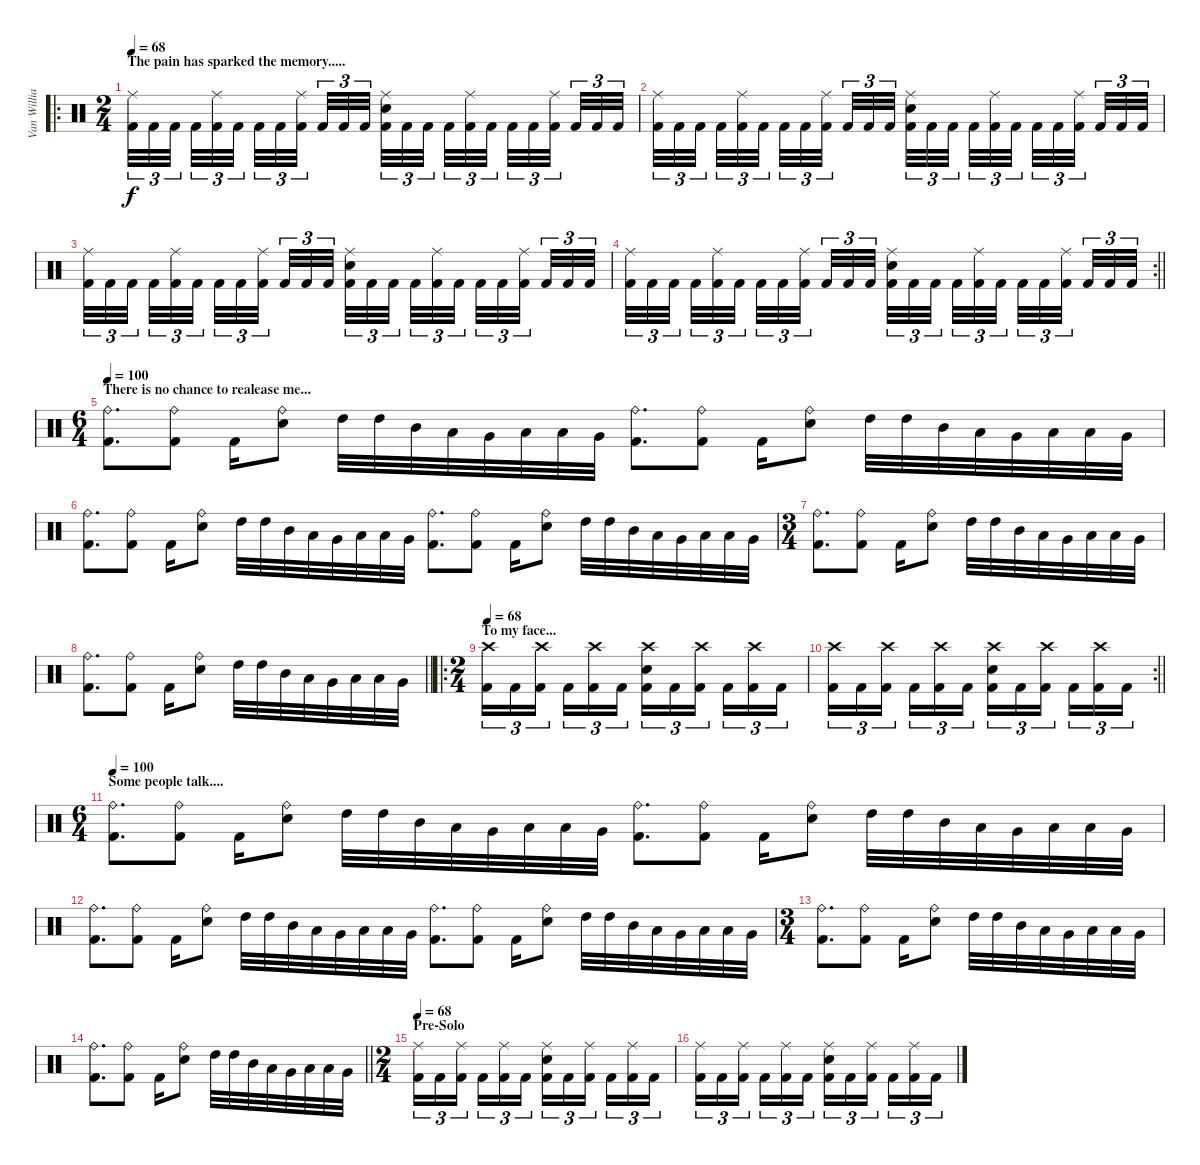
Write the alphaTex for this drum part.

\track ("Van Williams" "Van Willia") {instrument percussion}
\staff
\articulation defaults
\ro
\ts (2 4)
\section ("" "The pain has sparked the memory.....")
\tempo 68
\clef neutral
\ks c
("Ride (middle)" "Kick (hit) 2").32{tu (3 2) dy f} "Kick (hit) 2".32{tu (3 2)} "Kick (hit) 2".32{tu (3 2) beam splitsecondary} "Kick (hit) 2".32{tu (3 2)} ("Ride (middle)" "Kick (hit) 2").32{tu (3 2)} "Kick (hit) 2".32{tu (3 2) beam splitsecondary} "Kick (hit) 2".32{tu (3 2)} "Kick (hit) 2".32{tu (3 2)} ("Ride (middle)" "Kick (hit) 2").32{tu (3 2) beam splitsecondary} "Kick (hit) 2".32{tu (3 2)} "Kick (hit) 2".32{tu (3 2)} "Kick (hit) 2".32{tu (3 2)} ("Ride (middle)" "Electric Snare (hit)" "Kick (hit) 2").32{tu (3 2)} "Kick (hit) 2".32{tu (3 2)} "Kick (hit) 2".32{tu (3 2) beam splitsecondary} "Kick (hit) 2".32{tu (3 2)} ("Ride (middle)" "Kick (hit) 2").32{tu (3 2)} "Kick (hit) 2".32{tu (3 2) beam splitsecondary} "Kick (hit) 2".32{tu (3 2)} "Kick (hit) 2".32{tu (3 2)} ("Ride (middle)" "Kick (hit) 2").32{tu (3 2) beam splitsecondary} "Kick (hit) 2".32{tu (3 2)} "Kick (hit) 2".32{tu (3 2)} "Kick (hit) 2".32{tu (3 2)} |
("Ride (middle)" "Kick (hit) 2").32{tu (3 2)} "Kick (hit) 2".32{tu (3 2)} "Kick (hit) 2".32{tu (3 2) beam splitsecondary} "Kick (hit) 2".32{tu (3 2)} ("Ride (middle)" "Kick (hit) 2").32{tu (3 2)} "Kick (hit) 2".32{tu (3 2) beam splitsecondary} "Kick (hit) 2".32{tu (3 2)} "Kick (hit) 2".32{tu (3 2)} ("Ride (middle)" "Kick (hit) 2").32{tu (3 2) beam splitsecondary} "Kick (hit) 2".32{tu (3 2)} "Kick (hit) 2".32{tu (3 2)} "Kick (hit) 2".32{tu (3 2)} ("Ride (middle)" "Electric Snare (hit)" "Kick (hit) 2").32{tu (3 2)} "Kick (hit) 2".32{tu (3 2)} "Kick (hit) 2".32{tu (3 2) beam splitsecondary} "Kick (hit) 2".32{tu (3 2)} ("Ride (middle)" "Kick (hit) 2").32{tu (3 2)} "Kick (hit) 2".32{tu (3 2) beam splitsecondary} "Kick (hit) 2".32{tu (3 2)} "Kick (hit) 2".32{tu (3 2)} ("Ride (middle)" "Kick (hit) 2").32{tu (3 2) beam splitsecondary} "Kick (hit) 2".32{tu (3 2)} "Kick (hit) 2".32{tu (3 2)} "Kick (hit) 2".32{tu (3 2)} |
("Ride (middle)" "Kick (hit) 2").32{tu (3 2)} "Kick (hit) 2".32{tu (3 2)} "Kick (hit) 2".32{tu (3 2) beam splitsecondary} "Kick (hit) 2".32{tu (3 2)} ("Ride (middle)" "Kick (hit) 2").32{tu (3 2)} "Kick (hit) 2".32{tu (3 2) beam splitsecondary} "Kick (hit) 2".32{tu (3 2)} "Kick (hit) 2".32{tu (3 2)} ("Ride (middle)" "Kick (hit) 2").32{tu (3 2) beam splitsecondary} "Kick (hit) 2".32{tu (3 2)} "Kick (hit) 2".32{tu (3 2)} "Kick (hit) 2".32{tu (3 2)} ("Ride (middle)" "Electric Snare (hit)" "Kick (hit) 2").32{tu (3 2)} "Kick (hit) 2".32{tu (3 2)} "Kick (hit) 2".32{tu (3 2) beam splitsecondary} "Kick (hit) 2".32{tu (3 2)} ("Ride (middle)" "Kick (hit) 2").32{tu (3 2)} "Kick (hit) 2".32{tu (3 2) beam splitsecondary} "Kick (hit) 2".32{tu (3 2)} "Kick (hit) 2".32{tu (3 2)} ("Ride (middle)" "Kick (hit) 2").32{tu (3 2) beam splitsecondary} "Kick (hit) 2".32{tu (3 2)} "Kick (hit) 2".32{tu (3 2)} "Kick (hit) 2".32{tu (3 2)} |
\rc 2
\barLineRight lightlight
("Ride (middle)" "Kick (hit) 2").32{tu (3 2)} "Kick (hit) 2".32{tu (3 2)} "Kick (hit) 2".32{tu (3 2) beam splitsecondary} "Kick (hit) 2".32{tu (3 2)} ("Ride (middle)" "Kick (hit) 2").32{tu (3 2)} "Kick (hit) 2".32{tu (3 2) beam splitsecondary} "Kick (hit) 2".32{tu (3 2)} "Kick (hit) 2".32{tu (3 2)} ("Ride (middle)" "Kick (hit) 2").32{tu (3 2) beam splitsecondary} "Kick (hit) 2".32{tu (3 2)} "Kick (hit) 2".32{tu (3 2)} "Kick (hit) 2".32{tu (3 2)} ("Ride (middle)" "Electric Snare (hit)" "Kick (hit) 2").32{tu (3 2)} "Kick (hit) 2".32{tu (3 2)} "Kick (hit) 2".32{tu (3 2) beam splitsecondary} "Kick (hit) 2".32{tu (3 2)} ("Ride (middle)" "Kick (hit) 2").32{tu (3 2)} "Kick (hit) 2".32{tu (3 2) beam splitsecondary} "Kick (hit) 2".32{tu (3 2)} "Kick (hit) 2".32{tu (3 2)} ("Ride (middle)" "Kick (hit) 2").32{tu (3 2) beam splitsecondary} "Kick (hit) 2".32{tu (3 2)} "Kick (hit) 2".32{tu (3 2)} "Kick (hit) 2".32{tu (3 2)} |
\ts (6 4)
\section ("" "There is no chance to realease me...")
\tempo 100
("Ride (bell)" "Kick (hit) 2").8{d} ("Ride (bell)" "Kick (hit) 2").8 "Kick (hit) 2".16 ("Ride (bell)" "Electric Snare (hit)").8 "High Tom (hit)".32 "High Tom (hit)".32 "Mid Tom (hit)".32 "Low Tom (hit)".32 "Very Low Tom (hit)".32 "Low Floor Tom (hit)".32 "Low Tom (hit)".32 "Very Low Tom (hit)".32 ("Ride (bell)" "Kick (hit) 2").8{d} ("Ride (bell)" "Kick (hit) 2").8 "Kick (hit) 2".16 ("Ride (bell)" "Electric Snare (hit)").8 "High Tom (hit)".32 "High Tom (hit)".32 "Mid Tom (hit)".32 "Low Tom (hit)".32 "Very Low Tom (hit)".32 "Low Floor Tom (hit)".32 "Low Tom (hit)".32 "Very Low Tom (hit)".32 |
("Ride (bell)" "Kick (hit) 2").8{d} ("Ride (bell)" "Kick (hit) 2").8 "Kick (hit) 2".16 ("Ride (bell)" "Electric Snare (hit)").8 "High Tom (hit)".32 "High Tom (hit)".32 "Mid Tom (hit)".32 "Low Tom (hit)".32 "Very Low Tom (hit)".32 "Low Floor Tom (hit)".32 "Low Tom (hit)".32 "Very Low Tom (hit)".32 ("Ride (bell)" "Kick (hit) 2").8{d} ("Ride (bell)" "Kick (hit) 2").8 "Kick (hit) 2".16 ("Ride (bell)" "Electric Snare (hit)").8 "High Tom (hit)".32 "High Tom (hit)".32 "Mid Tom (hit)".32 "Low Tom (hit)".32 "Very Low Tom (hit)".32 "Low Floor Tom (hit)".32 "Low Tom (hit)".32 "Very Low Tom (hit)".32 |
\ts (3 4)
("Ride (bell)" "Kick (hit) 2").8{d} ("Ride (bell)" "Kick (hit) 2").8 "Kick (hit) 2".16 ("Ride (bell)" "Electric Snare (hit)").8 "High Tom (hit)".32 "High Tom (hit)".32 "Mid Tom (hit)".32 "Low Tom (hit)".32 "Very Low Tom (hit)".32 "Low Floor Tom (hit)".32 "Low Tom (hit)".32 "Very Low Tom (hit)".32 |
\barLineRight lightlight
("Ride (bell)" "Kick (hit) 2").8{d} ("Ride (bell)" "Kick (hit) 2").8 "Kick (hit) 2".16 ("Ride (bell)" "Electric Snare (hit)").8 "High Tom (hit)".32 "High Tom (hit)".32 "Mid Tom (hit)".32 "Low Tom (hit)".32 "Very Low Tom (hit)".32 "Low Floor Tom (hit)".32 "Low Tom (hit)".32 "Very Low Tom (hit)".32 |
\ro
\ts (2 4)
\section ("" "To my face...")
\tempo 68
("Crash high (hit)" "Kick (hit) 2").16{tu (3 2)} "Kick (hit) 2".16{tu (3 2)} ("Crash high (hit)" "Kick (hit) 2").16{tu (3 2) beam splitsecondary} "Kick (hit) 2".16{tu (3 2)} ("Crash high (hit)" "Kick (hit) 2").16{tu (3 2)} "Kick (hit) 2".16{tu (3 2)} ("Crash high (hit)" "Electric Snare (hit)" "Kick (hit) 2").16{tu (3 2)} "Kick (hit) 2".16{tu (3 2)} ("Crash high (hit)" "Kick (hit) 2").16{tu (3 2) beam splitsecondary} "Kick (hit) 2".16{tu (3 2)} ("Crash high (hit)" "Kick (hit) 2").16{tu (3 2)} "Kick (hit) 2".16{tu (3 2)} |
\rc 2
\barLineRight lightlight
("Crash high (hit)" "Kick (hit) 2").16{tu (3 2)} "Kick (hit) 2".16{tu (3 2)} ("Crash high (hit)" "Kick (hit) 2").16{tu (3 2) beam splitsecondary} "Kick (hit) 2".16{tu (3 2)} ("Crash high (hit)" "Kick (hit) 2").16{tu (3 2)} "Kick (hit) 2".16{tu (3 2)} ("Crash high (hit)" "Electric Snare (hit)" "Kick (hit) 2").16{tu (3 2)} "Kick (hit) 2".16{tu (3 2)} ("Crash high (hit)" "Kick (hit) 2").16{tu (3 2) beam splitsecondary} "Kick (hit) 2".16{tu (3 2)} ("Crash high (hit)" "Kick (hit) 2").16{tu (3 2)} "Kick (hit) 2".16{tu (3 2)} |
\ts (6 4)
\section ("" "Some people talk....")
\tempo 100
("Ride (bell)" "Kick (hit) 2").8{d} ("Ride (bell)" "Kick (hit) 2").8 "Kick (hit) 2".16 ("Ride (bell)" "Electric Snare (hit)").8 "High Tom (hit)".32 "High Tom (hit)".32 "Mid Tom (hit)".32 "Low Tom (hit)".32 "Very Low Tom (hit)".32 "Low Floor Tom (hit)".32 "Low Tom (hit)".32 "Very Low Tom (hit)".32 ("Ride (bell)" "Kick (hit) 2").8{d} ("Ride (bell)" "Kick (hit) 2").8 "Kick (hit) 2".16 ("Ride (bell)" "Electric Snare (hit)").8 "High Tom (hit)".32 "High Tom (hit)".32 "Mid Tom (hit)".32 "Low Tom (hit)".32 "Very Low Tom (hit)".32 "Low Floor Tom (hit)".32 "Low Tom (hit)".32 "Very Low Tom (hit)".32 |
("Ride (bell)" "Kick (hit) 2").8{d} ("Ride (bell)" "Kick (hit) 2").8 "Kick (hit) 2".16 ("Ride (bell)" "Electric Snare (hit)").8 "High Tom (hit)".32 "High Tom (hit)".32 "Mid Tom (hit)".32 "Low Tom (hit)".32 "Very Low Tom (hit)".32 "Low Floor Tom (hit)".32 "Low Tom (hit)".32 "Very Low Tom (hit)".32 ("Ride (bell)" "Kick (hit) 2").8{d} ("Ride (bell)" "Kick (hit) 2").8 "Kick (hit) 2".16 ("Ride (bell)" "Electric Snare (hit)").8 "High Tom (hit)".32 "High Tom (hit)".32 "Mid Tom (hit)".32 "Low Tom (hit)".32 "Very Low Tom (hit)".32 "Low Floor Tom (hit)".32 "Low Tom (hit)".32 "Very Low Tom (hit)".32 |
\ts (3 4)
("Ride (bell)" "Kick (hit) 2").8{d} ("Ride (bell)" "Kick (hit) 2").8 "Kick (hit) 2".16 ("Ride (bell)" "Electric Snare (hit)").8 "High Tom (hit)".32 "High Tom (hit)".32 "Mid Tom (hit)".32 "Low Tom (hit)".32 "Very Low Tom (hit)".32 "Low Floor Tom (hit)".32 "Low Tom (hit)".32 "Very Low Tom (hit)".32 |
\barLineRight lightlight
("Ride (bell)" "Kick (hit) 2").8{d} ("Ride (bell)" "Kick (hit) 2").8 "Kick (hit) 2".16 ("Ride (bell)" "Electric Snare (hit)").8 "High Tom (hit)".32 "High Tom (hit)".32 "Mid Tom (hit)".32 "Low Tom (hit)".32 "Very Low Tom (hit)".32 "Low Floor Tom (hit)".32 "Low Tom (hit)".32 "Very Low Tom (hit)".32 |
\ts (2 4)
\section ("" "Pre-Solo")
\tempo 68
("Ride (middle)" "Kick (hit) 2").16{tu (3 2)} "Kick (hit) 2".16{tu (3 2)} ("Ride (middle)" "Kick (hit) 2").16{tu (3 2) beam splitsecondary} "Kick (hit) 2".16{tu (3 2)} ("Ride (middle)" "Kick (hit) 2").16{tu (3 2)} "Kick (hit) 2".16{tu (3 2)} ("Ride (middle)" "Electric Snare (hit)" "Kick (hit) 2").16{tu (3 2)} "Kick (hit) 2".16{tu (3 2)} ("Ride (middle)" "Kick (hit) 2").16{tu (3 2) beam splitsecondary} "Kick (hit) 2".16{tu (3 2)} ("Ride (middle)" "Kick (hit) 2").16{tu (3 2)} "Kick (hit) 2".16{tu (3 2)} |
("Ride (middle)" "Kick (hit) 2").16{tu (3 2)} "Kick (hit) 2".16{tu (3 2)} ("Ride (middle)" "Kick (hit) 2").16{tu (3 2) beam splitsecondary} "Kick (hit) 2".16{tu (3 2)} ("Ride (middle)" "Kick (hit) 2").16{tu (3 2)} "Kick (hit) 2".16{tu (3 2)} ("Ride (middle)" "Electric Snare (hit)" "Kick (hit) 2").16{tu (3 2)} "Kick (hit) 2".16{tu (3 2)} ("Ride (middle)" "Kick (hit) 2").16{tu (3 2) beam splitsecondary} "Kick (hit) 2".16{tu (3 2)} ("Ride (middle)" "Kick (hit) 2").16{tu (3 2)} "Kick (hit) 2".16{tu (3 2)}
